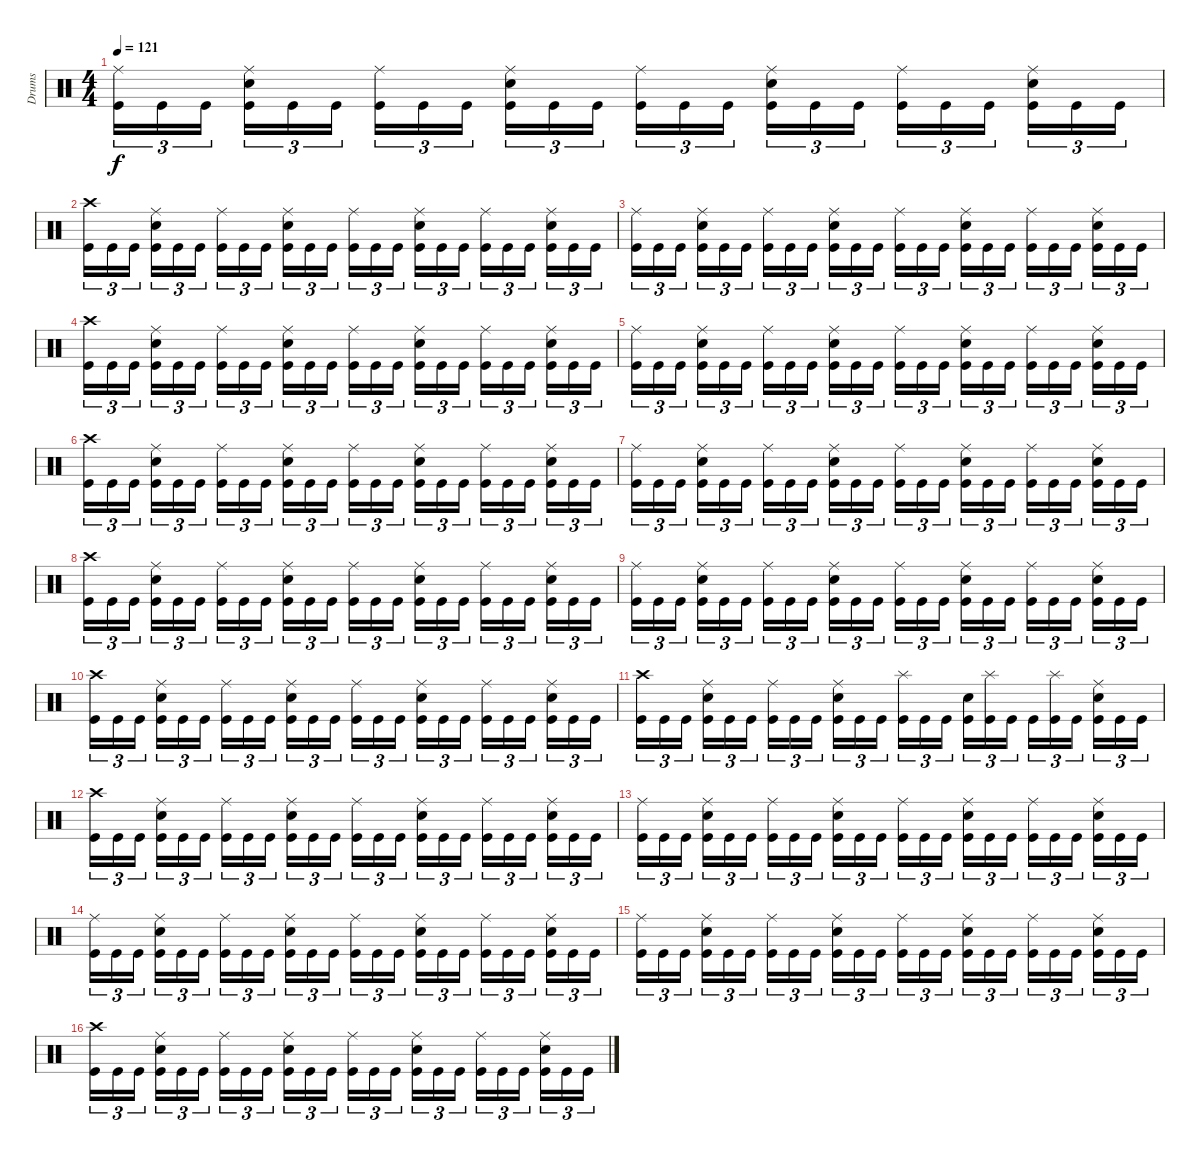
\track ("Drums" "Drums") {instrument percussion}
\staff {score}
\articulation defaults
\ts (4 4)
\tempo 121
\clef neutral
\ks c
("Ride (middle)" "Kick (hit)").16{tu (3 2) dy f} "Kick (hit)".16{tu (3 2)} "Kick (hit)".16{tu (3 2)} ("Ride (middle)" "Electric Snare (hit)" "Kick (hit)").16{tu (3 2)} "Kick (hit)".16{tu (3 2)} "Kick (hit)".16{tu (3 2)} ("Ride (middle)" "Kick (hit)").16{tu (3 2)} "Kick (hit)".16{tu (3 2)} "Kick (hit)".16{tu (3 2)} ("Ride (middle)" "Electric Snare (hit)" "Kick (hit)").16{tu (3 2)} "Kick (hit)".16{tu (3 2)} "Kick (hit)".16{tu (3 2)} ("Ride (middle)" "Kick (hit)").16{tu (3 2)} "Kick (hit)".16{tu (3 2)} "Kick (hit)".16{tu (3 2)} ("Ride (middle)" "Electric Snare (hit)" "Kick (hit)").16{tu (3 2)} "Kick (hit)".16{tu (3 2)} "Kick (hit)".16{tu (3 2)} ("Ride (middle)" "Kick (hit)").16{tu (3 2)} "Kick (hit)".16{tu (3 2)} "Kick (hit)".16{tu (3 2)} ("Ride (middle)" "Electric Snare (hit)" "Kick (hit)").16{tu (3 2)} "Kick (hit)".16{tu (3 2)} "Kick (hit)".16{tu (3 2)} |
("Crash high (hit)" "Kick (hit)").16{tu (3 2)} "Kick (hit)".16{tu (3 2)} "Kick (hit)".16{tu (3 2)} ("Ride (middle)" "Electric Snare (hit)" "Kick (hit)").16{tu (3 2)} "Kick (hit)".16{tu (3 2)} "Kick (hit)".16{tu (3 2)} ("Ride (middle)" "Kick (hit)").16{tu (3 2)} "Kick (hit)".16{tu (3 2)} "Kick (hit)".16{tu (3 2)} ("Ride (middle)" "Electric Snare (hit)" "Kick (hit)").16{tu (3 2)} "Kick (hit)".16{tu (3 2)} "Kick (hit)".16{tu (3 2)} ("Ride (middle)" "Kick (hit)").16{tu (3 2)} "Kick (hit)".16{tu (3 2)} "Kick (hit)".16{tu (3 2)} ("Ride (middle)" "Electric Snare (hit)" "Kick (hit)").16{tu (3 2)} "Kick (hit)".16{tu (3 2)} "Kick (hit)".16{tu (3 2)} ("Ride (middle)" "Kick (hit)").16{tu (3 2)} "Kick (hit)".16{tu (3 2)} "Kick (hit)".16{tu (3 2)} ("Ride (middle)" "Electric Snare (hit)" "Kick (hit)").16{tu (3 2)} "Kick (hit)".16{tu (3 2)} "Kick (hit)".16{tu (3 2)} |
("Ride (middle)" "Kick (hit)").16{tu (3 2)} "Kick (hit)".16{tu (3 2)} "Kick (hit)".16{tu (3 2)} ("Ride (middle)" "Electric Snare (hit)" "Kick (hit)").16{tu (3 2)} "Kick (hit)".16{tu (3 2)} "Kick (hit)".16{tu (3 2)} ("Ride (middle)" "Kick (hit)").16{tu (3 2)} "Kick (hit)".16{tu (3 2)} "Kick (hit)".16{tu (3 2)} ("Ride (middle)" "Electric Snare (hit)" "Kick (hit)").16{tu (3 2)} "Kick (hit)".16{tu (3 2)} "Kick (hit)".16{tu (3 2)} ("Ride (middle)" "Kick (hit)").16{tu (3 2)} "Kick (hit)".16{tu (3 2)} "Kick (hit)".16{tu (3 2)} ("Ride (middle)" "Electric Snare (hit)" "Kick (hit)").16{tu (3 2)} "Kick (hit)".16{tu (3 2)} "Kick (hit)".16{tu (3 2)} ("Ride (middle)" "Kick (hit)").16{tu (3 2)} "Kick (hit)".16{tu (3 2)} "Kick (hit)".16{tu (3 2)} ("Ride (middle)" "Electric Snare (hit)" "Kick (hit)").16{tu (3 2)} "Kick (hit)".16{tu (3 2)} "Kick (hit)".16{tu (3 2)} |
("Crash high (hit)" "Kick (hit)").16{tu (3 2)} "Kick (hit)".16{tu (3 2)} "Kick (hit)".16{tu (3 2)} ("Ride (middle)" "Electric Snare (hit)" "Kick (hit)").16{tu (3 2)} "Kick (hit)".16{tu (3 2)} "Kick (hit)".16{tu (3 2)} ("Ride (middle)" "Kick (hit)").16{tu (3 2)} "Kick (hit)".16{tu (3 2)} "Kick (hit)".16{tu (3 2)} ("Ride (middle)" "Electric Snare (hit)" "Kick (hit)").16{tu (3 2)} "Kick (hit)".16{tu (3 2)} "Kick (hit)".16{tu (3 2)} ("Ride (middle)" "Kick (hit)").16{tu (3 2)} "Kick (hit)".16{tu (3 2)} "Kick (hit)".16{tu (3 2)} ("Ride (middle)" "Electric Snare (hit)" "Kick (hit)").16{tu (3 2)} "Kick (hit)".16{tu (3 2)} "Kick (hit)".16{tu (3 2)} ("Ride (middle)" "Kick (hit)").16{tu (3 2)} "Kick (hit)".16{tu (3 2)} "Kick (hit)".16{tu (3 2)} ("Ride (middle)" "Electric Snare (hit)" "Kick (hit)").16{tu (3 2)} "Kick (hit)".16{tu (3 2)} "Kick (hit)".16{tu (3 2)} |
("Ride (middle)" "Kick (hit)").16{tu (3 2)} "Kick (hit)".16{tu (3 2)} "Kick (hit)".16{tu (3 2)} ("Ride (middle)" "Electric Snare (hit)" "Kick (hit)").16{tu (3 2)} "Kick (hit)".16{tu (3 2)} "Kick (hit)".16{tu (3 2)} ("Ride (middle)" "Kick (hit)").16{tu (3 2)} "Kick (hit)".16{tu (3 2)} "Kick (hit)".16{tu (3 2)} ("Ride (middle)" "Electric Snare (hit)" "Kick (hit)").16{tu (3 2)} "Kick (hit)".16{tu (3 2)} "Kick (hit)".16{tu (3 2)} ("Ride (middle)" "Kick (hit)").16{tu (3 2)} "Kick (hit)".16{tu (3 2)} "Kick (hit)".16{tu (3 2)} ("Ride (middle)" "Electric Snare (hit)" "Kick (hit)").16{tu (3 2)} "Kick (hit)".16{tu (3 2)} "Kick (hit)".16{tu (3 2)} ("Ride (middle)" "Kick (hit)").16{tu (3 2)} "Kick (hit)".16{tu (3 2)} "Kick (hit)".16{tu (3 2)} ("Ride (middle)" "Electric Snare (hit)" "Kick (hit)").16{tu (3 2)} "Kick (hit)".16{tu (3 2)} "Kick (hit)".16{tu (3 2)} |
("Crash high (hit)" "Kick (hit)").16{tu (3 2)} "Kick (hit)".16{tu (3 2)} "Kick (hit)".16{tu (3 2)} ("Ride (middle)" "Electric Snare (hit)" "Kick (hit)").16{tu (3 2)} "Kick (hit)".16{tu (3 2)} "Kick (hit)".16{tu (3 2)} ("Ride (middle)" "Kick (hit)").16{tu (3 2)} "Kick (hit)".16{tu (3 2)} "Kick (hit)".16{tu (3 2)} ("Ride (middle)" "Electric Snare (hit)" "Kick (hit)").16{tu (3 2)} "Kick (hit)".16{tu (3 2)} "Kick (hit)".16{tu (3 2)} ("Ride (middle)" "Kick (hit)").16{tu (3 2)} "Kick (hit)".16{tu (3 2)} "Kick (hit)".16{tu (3 2)} ("Ride (middle)" "Electric Snare (hit)" "Kick (hit)").16{tu (3 2)} "Kick (hit)".16{tu (3 2)} "Kick (hit)".16{tu (3 2)} ("Ride (middle)" "Kick (hit)").16{tu (3 2)} "Kick (hit)".16{tu (3 2)} "Kick (hit)".16{tu (3 2)} ("Ride (middle)" "Electric Snare (hit)" "Kick (hit)").16{tu (3 2)} "Kick (hit)".16{tu (3 2)} "Kick (hit)".16{tu (3 2)} |
("Ride (middle)" "Kick (hit)").16{tu (3 2)} "Kick (hit)".16{tu (3 2)} "Kick (hit)".16{tu (3 2)} ("Ride (middle)" "Electric Snare (hit)" "Kick (hit)").16{tu (3 2)} "Kick (hit)".16{tu (3 2)} "Kick (hit)".16{tu (3 2)} ("Ride (middle)" "Kick (hit)").16{tu (3 2)} "Kick (hit)".16{tu (3 2)} "Kick (hit)".16{tu (3 2)} ("Ride (middle)" "Electric Snare (hit)" "Kick (hit)").16{tu (3 2)} "Kick (hit)".16{tu (3 2)} "Kick (hit)".16{tu (3 2)} ("Ride (middle)" "Kick (hit)").16{tu (3 2)} "Kick (hit)".16{tu (3 2)} "Kick (hit)".16{tu (3 2)} ("Ride (middle)" "Electric Snare (hit)" "Kick (hit)").16{tu (3 2)} "Kick (hit)".16{tu (3 2)} "Kick (hit)".16{tu (3 2)} ("Ride (middle)" "Kick (hit)").16{tu (3 2)} "Kick (hit)".16{tu (3 2)} "Kick (hit)".16{tu (3 2)} ("Ride (middle)" "Electric Snare (hit)" "Kick (hit)").16{tu (3 2)} "Kick (hit)".16{tu (3 2)} "Kick (hit)".16{tu (3 2)} |
("Crash high (hit)" "Kick (hit)").16{tu (3 2)} "Kick (hit)".16{tu (3 2)} "Kick (hit)".16{tu (3 2)} ("Ride (middle)" "Electric Snare (hit)" "Kick (hit)").16{tu (3 2)} "Kick (hit)".16{tu (3 2)} "Kick (hit)".16{tu (3 2)} ("Ride (middle)" "Kick (hit)").16{tu (3 2)} "Kick (hit)".16{tu (3 2)} "Kick (hit)".16{tu (3 2)} ("Ride (middle)" "Electric Snare (hit)" "Kick (hit)").16{tu (3 2)} "Kick (hit)".16{tu (3 2)} "Kick (hit)".16{tu (3 2)} ("Ride (middle)" "Kick (hit)").16{tu (3 2)} "Kick (hit)".16{tu (3 2)} "Kick (hit)".16{tu (3 2)} ("Ride (middle)" "Electric Snare (hit)" "Kick (hit)").16{tu (3 2)} "Kick (hit)".16{tu (3 2)} "Kick (hit)".16{tu (3 2)} ("Ride (middle)" "Kick (hit)").16{tu (3 2)} "Kick (hit)".16{tu (3 2)} "Kick (hit)".16{tu (3 2)} ("Ride (middle)" "Electric Snare (hit)" "Kick (hit)").16{tu (3 2)} "Kick (hit)".16{tu (3 2)} "Kick (hit)".16{tu (3 2)} |
("Ride (middle)" "Kick (hit)").16{tu (3 2)} "Kick (hit)".16{tu (3 2)} "Kick (hit)".16{tu (3 2)} ("Ride (middle)" "Electric Snare (hit)" "Kick (hit)").16{tu (3 2)} "Kick (hit)".16{tu (3 2)} "Kick (hit)".16{tu (3 2)} ("Ride (middle)" "Kick (hit)").16{tu (3 2)} "Kick (hit)".16{tu (3 2)} "Kick (hit)".16{tu (3 2)} ("Ride (middle)" "Electric Snare (hit)" "Kick (hit)").16{tu (3 2)} "Kick (hit)".16{tu (3 2)} "Kick (hit)".16{tu (3 2)} ("Ride (middle)" "Kick (hit)").16{tu (3 2)} "Kick (hit)".16{tu (3 2)} "Kick (hit)".16{tu (3 2)} ("Ride (middle)" "Electric Snare (hit)" "Kick (hit)").16{tu (3 2)} "Kick (hit)".16{tu (3 2)} "Kick (hit)".16{tu (3 2)} ("Ride (middle)" "Kick (hit)").16{tu (3 2)} "Kick (hit)".16{tu (3 2)} "Kick (hit)".16{tu (3 2)} ("Ride (middle)" "Electric Snare (hit)" "Kick (hit)").16{tu (3 2)} "Kick (hit)".16{tu (3 2)} "Kick (hit)".16{tu (3 2)} |
("Crash high (hit)" "Kick (hit)").16{tu (3 2)} "Kick (hit)".16{tu (3 2)} "Kick (hit)".16{tu (3 2)} ("Ride (middle)" "Electric Snare (hit)" "Kick (hit)").16{tu (3 2)} "Kick (hit)".16{tu (3 2)} "Kick (hit)".16{tu (3 2)} ("Ride (middle)" "Kick (hit)").16{tu (3 2)} "Kick (hit)".16{tu (3 2)} "Kick (hit)".16{tu (3 2)} ("Ride (middle)" "Electric Snare (hit)" "Kick (hit)").16{tu (3 2)} "Kick (hit)".16{tu (3 2)} "Kick (hit)".16{tu (3 2)} ("Ride (middle)" "Kick (hit)").16{tu (3 2)} "Kick (hit)".16{tu (3 2)} "Kick (hit)".16{tu (3 2)} ("Ride (middle)" "Electric Snare (hit)" "Kick (hit)").16{tu (3 2)} "Kick (hit)".16{tu (3 2)} "Kick (hit)".16{tu (3 2)} ("Ride (middle)" "Kick (hit)").16{tu (3 2)} "Kick (hit)".16{tu (3 2)} "Kick (hit)".16{tu (3 2)} ("Ride (middle)" "Electric Snare (hit)" "Kick (hit)").16{tu (3 2)} "Kick (hit)".16{tu (3 2)} "Kick (hit)".16{tu (3 2)} |
("Crash high (hit)" "Kick (hit)").16{tu (3 2)} "Kick (hit)".16{tu (3 2)} "Kick (hit)".16{tu (3 2)} ("Ride (middle)" "Electric Snare (hit)" "Kick (hit)").16{tu (3 2)} "Kick (hit)".16{tu (3 2)} "Kick (hit)".16{tu (3 2)} ("Ride (middle)" "Kick (hit)").16{tu (3 2)} "Kick (hit)".16{tu (3 2)} "Kick (hit)".16{tu (3 2)} ("Ride (middle)" "Electric Snare (hit)" "Kick (hit)").16{tu (3 2)} "Kick (hit)".16{tu (3 2)} "Kick (hit)".16{tu (3 2)} ("Splash (hit)" "Kick (hit)").16{tu (3 2)} "Kick (hit)".16{tu (3 2)} "Kick (hit)".16{tu (3 2)} ("Electric Snare (hit)" "Kick (hit)").16{tu (3 2)} ("Splash (hit)" "Kick (hit)").16{tu (3 2)} "Kick (hit)".16{tu (3 2)} "Kick (hit)".16{tu (3 2)} ("Splash (hit)" "Kick (hit)").16{tu (3 2)} "Kick (hit)".16{tu (3 2)} ("Ride (middle)" "Electric Snare (hit)" "Kick (hit)").16{tu (3 2)} "Kick (hit)".16{tu (3 2)} "Kick (hit)".16{tu (3 2)} |
("Crash high (hit)" "Kick (hit)").16{tu (3 2)} "Kick (hit)".16{tu (3 2)} "Kick (hit)".16{tu (3 2)} ("Ride (middle)" "Electric Snare (hit)" "Kick (hit)").16{tu (3 2)} "Kick (hit)".16{tu (3 2)} "Kick (hit)".16{tu (3 2)} ("Ride (middle)" "Kick (hit)").16{tu (3 2)} "Kick (hit)".16{tu (3 2)} "Kick (hit)".16{tu (3 2)} ("Ride (middle)" "Electric Snare (hit)" "Kick (hit)").16{tu (3 2)} "Kick (hit)".16{tu (3 2)} "Kick (hit)".16{tu (3 2)} ("Ride (middle)" "Kick (hit)").16{tu (3 2)} "Kick (hit)".16{tu (3 2)} "Kick (hit)".16{tu (3 2)} ("Ride (middle)" "Electric Snare (hit)" "Kick (hit)").16{tu (3 2)} "Kick (hit)".16{tu (3 2)} "Kick (hit)".16{tu (3 2)} ("Ride (middle)" "Kick (hit)").16{tu (3 2)} "Kick (hit)".16{tu (3 2)} "Kick (hit)".16{tu (3 2)} ("Ride (middle)" "Electric Snare (hit)" "Kick (hit)").16{tu (3 2)} "Kick (hit)".16{tu (3 2)} "Kick (hit)".16{tu (3 2)} |
("Ride (middle)" "Kick (hit)").16{tu (3 2)} "Kick (hit)".16{tu (3 2)} "Kick (hit)".16{tu (3 2)} ("Ride (middle)" "Electric Snare (hit)" "Kick (hit)").16{tu (3 2)} "Kick (hit)".16{tu (3 2)} "Kick (hit)".16{tu (3 2)} ("Ride (middle)" "Kick (hit)").16{tu (3 2)} "Kick (hit)".16{tu (3 2)} "Kick (hit)".16{tu (3 2)} ("Ride (middle)" "Electric Snare (hit)" "Kick (hit)").16{tu (3 2)} "Kick (hit)".16{tu (3 2)} "Kick (hit)".16{tu (3 2)} ("Ride (middle)" "Kick (hit)").16{tu (3 2)} "Kick (hit)".16{tu (3 2)} "Kick (hit)".16{tu (3 2)} ("Ride (middle)" "Electric Snare (hit)" "Kick (hit)").16{tu (3 2)} "Kick (hit)".16{tu (3 2)} "Kick (hit)".16{tu (3 2)} ("Ride (middle)" "Kick (hit)").16{tu (3 2)} "Kick (hit)".16{tu (3 2)} "Kick (hit)".16{tu (3 2)} ("Ride (middle)" "Electric Snare (hit)" "Kick (hit)").16{tu (3 2)} "Kick (hit)".16{tu (3 2)} "Kick (hit)".16{tu (3 2)} |
("Ride (middle)" "Kick (hit)").16{tu (3 2)} "Kick (hit)".16{tu (3 2)} "Kick (hit)".16{tu (3 2)} ("Ride (middle)" "Electric Snare (hit)" "Kick (hit)").16{tu (3 2)} "Kick (hit)".16{tu (3 2)} "Kick (hit)".16{tu (3 2)} ("Ride (middle)" "Kick (hit)").16{tu (3 2)} "Kick (hit)".16{tu (3 2)} "Kick (hit)".16{tu (3 2)} ("Ride (middle)" "Electric Snare (hit)" "Kick (hit)").16{tu (3 2)} "Kick (hit)".16{tu (3 2)} "Kick (hit)".16{tu (3 2)} ("Ride (middle)" "Kick (hit)").16{tu (3 2)} "Kick (hit)".16{tu (3 2)} "Kick (hit)".16{tu (3 2)} ("Ride (middle)" "Electric Snare (hit)" "Kick (hit)").16{tu (3 2)} "Kick (hit)".16{tu (3 2)} "Kick (hit)".16{tu (3 2)} ("Ride (middle)" "Kick (hit)").16{tu (3 2)} "Kick (hit)".16{tu (3 2)} "Kick (hit)".16{tu (3 2)} ("Ride (middle)" "Electric Snare (hit)" "Kick (hit)").16{tu (3 2)} "Kick (hit)".16{tu (3 2)} "Kick (hit)".16{tu (3 2)} |
("Ride (middle)" "Kick (hit)").16{tu (3 2)} "Kick (hit)".16{tu (3 2)} "Kick (hit)".16{tu (3 2)} ("Ride (middle)" "Electric Snare (hit)" "Kick (hit)").16{tu (3 2)} "Kick (hit)".16{tu (3 2)} "Kick (hit)".16{tu (3 2)} ("Ride (middle)" "Kick (hit)").16{tu (3 2)} "Kick (hit)".16{tu (3 2)} "Kick (hit)".16{tu (3 2)} ("Ride (middle)" "Electric Snare (hit)" "Kick (hit)").16{tu (3 2)} "Kick (hit)".16{tu (3 2)} "Kick (hit)".16{tu (3 2)} ("Ride (middle)" "Kick (hit)").16{tu (3 2)} "Kick (hit)".16{tu (3 2)} "Kick (hit)".16{tu (3 2)} ("Ride (middle)" "Electric Snare (hit)" "Kick (hit)").16{tu (3 2)} "Kick (hit)".16{tu (3 2)} "Kick (hit)".16{tu (3 2)} ("Ride (middle)" "Kick (hit)").16{tu (3 2)} "Kick (hit)".16{tu (3 2)} "Kick (hit)".16{tu (3 2)} ("Ride (middle)" "Electric Snare (hit)" "Kick (hit)").16{tu (3 2)} "Kick (hit)".16{tu (3 2)} "Kick (hit)".16{tu (3 2)} |
("Crash high (hit)" "Kick (hit)").16{tu (3 2)} "Kick (hit)".16{tu (3 2)} "Kick (hit)".16{tu (3 2)} ("Ride (middle)" "Electric Snare (hit)" "Kick (hit)").16{tu (3 2)} "Kick (hit)".16{tu (3 2)} "Kick (hit)".16{tu (3 2)} ("Ride (middle)" "Kick (hit)").16{tu (3 2)} "Kick (hit)".16{tu (3 2)} "Kick (hit)".16{tu (3 2)} ("Ride (middle)" "Electric Snare (hit)" "Kick (hit)").16{tu (3 2)} "Kick (hit)".16{tu (3 2)} "Kick (hit)".16{tu (3 2)} ("Ride (middle)" "Kick (hit)").16{tu (3 2)} "Kick (hit)".16{tu (3 2)} "Kick (hit)".16{tu (3 2)} ("Ride (middle)" "Electric Snare (hit)" "Kick (hit)").16{tu (3 2)} "Kick (hit)".16{tu (3 2)} "Kick (hit)".16{tu (3 2)} ("Ride (middle)" "Kick (hit)").16{tu (3 2)} "Kick (hit)".16{tu (3 2)} "Kick (hit)".16{tu (3 2)} ("Ride (middle)" "Electric Snare (hit)" "Kick (hit)").16{tu (3 2)} "Kick (hit)".16{tu (3 2)} "Kick (hit)".16{tu (3 2)}
